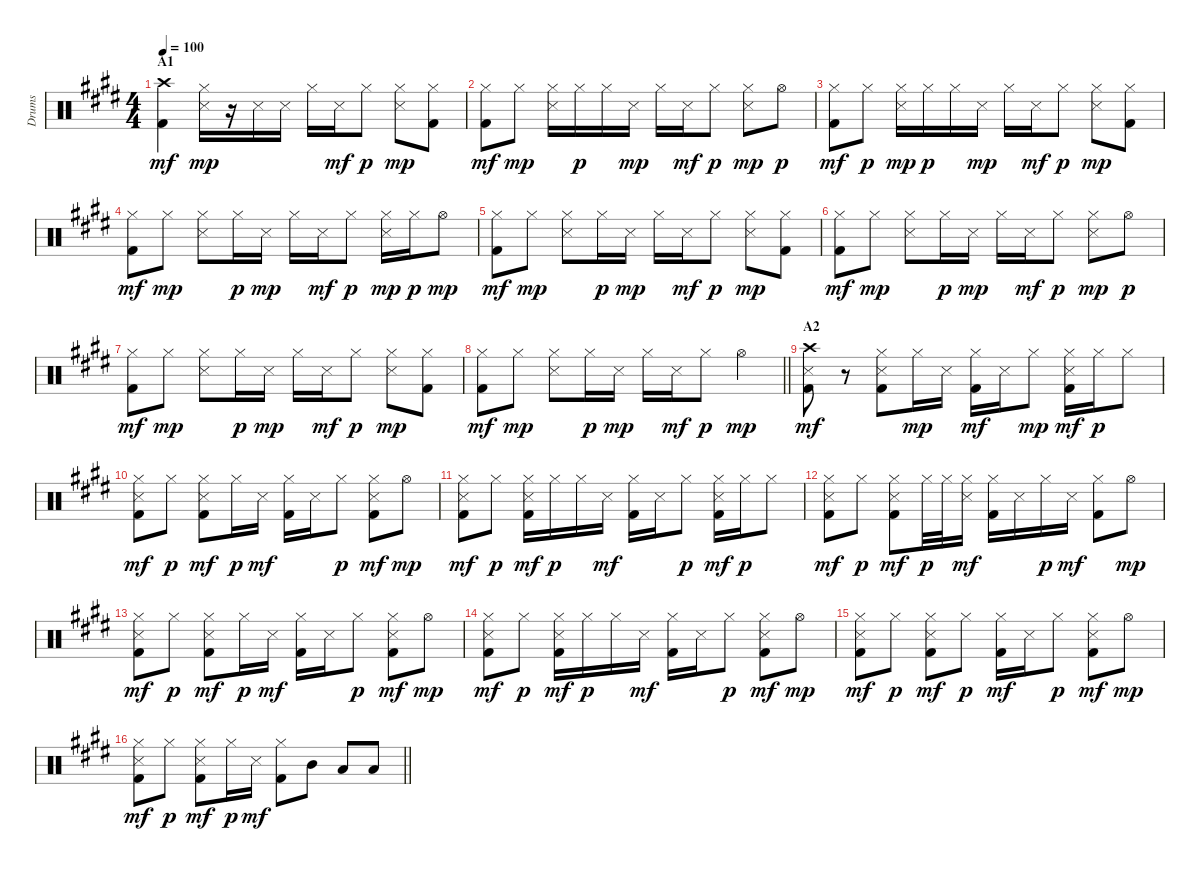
\track ("Drums" "Drums") {instrument percussion}
\staff {score}
\articulation defaults
\ts (4 4)
\section ("" "A1")
\tempo 100
\clef neutral
\ks e
("Crash high (hit)" "Kick (hit) 2").4{dy mf} ("Hi-Hat (closed)" "Snare (side stick) 3").16{dy mp} r.16 "Snare (side stick) 3".16 "Snare (side stick) 3".16 "Hi-Hat (closed)".16 "Snare (side stick) 3".16{dy mf} "Hi-Hat (closed)".8{dy p} ("Hi-Hat (closed)" "Snare (side stick) 3").8{dy mp} ("Hi-Hat (closed)" "Kick (hit) 2").8 |
("Hi-Hat (closed)" "Kick (hit) 2").8{dy mf} "Hi-Hat (closed)".8{dy mp} ("Hi-Hat (closed)" "Snare (side stick) 3").16 "Hi-Hat (closed)".16{dy p} "Hi-Hat (closed)".16 "Snare (side stick) 3".16{dy mp} "Hi-Hat (closed)".16 "Snare (side stick) 3".16{dy mf} "Hi-Hat (closed)".8{dy p} ("Hi-Hat (closed)" "Snare (side stick) 3").8{dy mp} "Hi-Hat (open)".8{dy p} |
("Hi-Hat (closed)" "Kick (hit) 2").8{dy mf} "Hi-Hat (closed)".8{dy p} ("Hi-Hat (closed)" "Snare (side stick) 3").16{dy mp} "Hi-Hat (closed)".16{dy p} "Hi-Hat (closed)".16 "Snare (side stick) 3".16{dy mp} "Hi-Hat (closed)".16 "Snare (side stick) 3".16{dy mf} "Hi-Hat (closed)".8{dy p} ("Hi-Hat (closed)" "Snare (side stick) 3").8{dy mp} ("Hi-Hat (closed)" "Kick (hit) 2").8 |
("Hi-Hat (closed)" "Kick (hit) 2").8{dy mf} "Hi-Hat (closed)".8{dy mp} ("Hi-Hat (closed)" "Snare (side stick) 3").8 "Hi-Hat (closed)".16{dy p} "Snare (side stick) 3".16{dy mp} "Hi-Hat (closed)".16 "Snare (side stick) 3".16{dy mf} "Hi-Hat (closed)".8{dy p} ("Hi-Hat (closed)" "Snare (side stick) 3").16{dy mp} "Hi-Hat (closed)".16{dy p} "Hi-Hat (open)".8{dy mp} |
("Hi-Hat (closed)" "Kick (hit) 2").8{dy mf} "Hi-Hat (closed)".8{dy mp} ("Hi-Hat (closed)" "Snare (side stick) 3").8 "Hi-Hat (closed)".16{dy p} "Snare (side stick) 3".16{dy mp} "Hi-Hat (closed)".16 "Snare (side stick) 3".16{dy mf} "Hi-Hat (closed)".8{dy p} ("Hi-Hat (closed)" "Snare (side stick) 3").8{dy mp} ("Hi-Hat (closed)" "Kick (hit) 2").8 |
("Hi-Hat (closed)" "Kick (hit) 2").8{dy mf} "Hi-Hat (closed)".8{dy mp} ("Hi-Hat (closed)" "Snare (side stick) 3").8 "Hi-Hat (closed)".16{dy p} "Snare (side stick) 3".16{dy mp} "Hi-Hat (closed)".16 "Snare (side stick) 3".16{dy mf} "Hi-Hat (closed)".8{dy p} ("Hi-Hat (closed)" "Snare (side stick) 3").8{dy mp} "Hi-Hat (open)".8{dy p} |
("Hi-Hat (closed)" "Kick (hit) 2").8{dy mf} "Hi-Hat (closed)".8{dy mp} ("Hi-Hat (closed)" "Snare (side stick) 3").8 "Hi-Hat (closed)".16{dy p} "Snare (side stick) 3".16{dy mp} "Hi-Hat (closed)".16 "Snare (side stick) 3".16{dy mf} "Hi-Hat (closed)".8{dy p} ("Hi-Hat (closed)" "Snare (side stick) 3").8{dy mp} ("Hi-Hat (closed)" "Kick (hit) 2").8 |
\barLineRight lightlight
("Hi-Hat (closed)" "Kick (hit) 2").8{dy mf} "Hi-Hat (closed)".8{dy mp} ("Hi-Hat (closed)" "Snare (side stick) 3").8 "Hi-Hat (closed)".16{dy p} "Snare (side stick) 3".16{dy mp} "Hi-Hat (closed)".16 "Snare (side stick) 3".16{dy mf} "Hi-Hat (closed)".8{dy p} "Hi-Hat (open)".4{dy mp} |
\section ("" "A2")
("Crash high (hit)" "Snare (side stick) 3" "Kick (hit) 2").8{dy mf} r.8 ("Hi-Hat (closed)" "Snare (side stick) 3" "Kick (hit) 2").8 "Hi-Hat (closed)".16{dy mp} "Snare (side stick) 3".16 ("Hi-Hat (closed)" "Kick (hit) 2").16{dy mf} "Snare (side stick) 3".16 "Hi-Hat (closed)".8{dy mp} ("Hi-Hat (closed)" "Snare (side stick) 3" "Kick (hit) 2").16{dy mf} "Hi-Hat (closed)".16{dy p} "Hi-Hat (closed)".8 |
("Hi-Hat (closed)" "Snare (side stick) 3" "Kick (hit) 2").8{dy mf} "Hi-Hat (closed)".8{dy p} ("Hi-Hat (closed)" "Snare (side stick) 3" "Kick (hit) 2").8{dy mf} "Hi-Hat (closed)".16{dy p} "Snare (side stick) 3".16{dy mf} ("Hi-Hat (closed)" "Kick (hit) 2").16 "Snare (side stick) 3".16 "Hi-Hat (closed)".8{dy p} ("Hi-Hat (closed)" "Snare (side stick) 3" "Kick (hit) 2").8{dy mf} "Hi-Hat (open)".8{dy mp} |
("Hi-Hat (closed)" "Snare (side stick) 3" "Kick (hit) 2").8{dy mf} "Hi-Hat (closed)".8{dy p} ("Hi-Hat (closed)" "Snare (side stick) 3" "Kick (hit) 2").16{dy mf} "Hi-Hat (closed)".16{dy p} "Hi-Hat (closed)".16 "Snare (side stick) 3".16{dy mf} ("Hi-Hat (closed)" "Kick (hit) 2").16 "Snare (side stick) 3".16 "Hi-Hat (closed)".8{dy p} ("Hi-Hat (closed)" "Snare (side stick) 3" "Kick (hit) 2").16{dy mf} "Hi-Hat (closed)".16{dy p} "Hi-Hat (closed)".8 |
("Hi-Hat (closed)" "Snare (side stick) 3" "Kick (hit) 2").8{dy mf} "Hi-Hat (closed)".8{dy p} ("Hi-Hat (closed)" "Snare (side stick) 3" "Kick (hit) 2").8{dy mf} "Hi-Hat (closed)".32{dy p} "Hi-Hat (closed)".32 ("Hi-Hat (closed)" "Snare (side stick) 3").16{dy mf} ("Hi-Hat (closed)" "Kick (hit) 2").16 "Snare (side stick) 3".16 "Hi-Hat (closed)".16{dy p} "Snare (side stick) 3".16{dy mf} ("Hi-Hat (closed)" "Kick (hit) 2").8 "Hi-Hat (open)".8{dy mp} |
("Hi-Hat (closed)" "Snare (side stick) 3" "Kick (hit) 2").8{dy mf} "Hi-Hat (closed)".8{dy p} ("Hi-Hat (closed)" "Snare (side stick) 3" "Kick (hit) 2").8{dy mf} "Hi-Hat (closed)".16{dy p} "Snare (side stick) 3".16{dy mf} ("Hi-Hat (closed)" "Kick (hit) 2").16 "Snare (side stick) 3".16 "Hi-Hat (closed)".8{dy p} ("Hi-Hat (closed)" "Snare (side stick) 3" "Kick (hit) 2").8{dy mf} "Hi-Hat (open)".8{dy mp} |
("Hi-Hat (closed)" "Snare (side stick) 3" "Kick (hit) 2").8{dy mf} "Hi-Hat (closed)".8{dy p} ("Hi-Hat (closed)" "Snare (side stick) 3" "Kick (hit) 2").16{dy mf} "Hi-Hat (closed)".16{dy p} "Hi-Hat (closed)".16 "Snare (side stick) 3".16{dy mf} ("Hi-Hat (closed)" "Kick (hit) 2").16 "Snare (side stick) 3".16 "Hi-Hat (closed)".8{dy p} ("Hi-Hat (closed)" "Snare (side stick) 3" "Kick (hit) 2").8{dy mf} "Hi-Hat (open)".8{dy mp} |
("Hi-Hat (closed)" "Snare (side stick) 3" "Kick (hit) 2").8{dy mf} "Hi-Hat (closed)".8{dy p} ("Hi-Hat (closed)" "Snare (side stick) 3" "Kick (hit) 2").8{dy mf} "Hi-Hat (closed)".8{dy p} ("Hi-Hat (closed)" "Kick (hit) 2").16{dy mf} "Snare (side stick) 3".16 "Hi-Hat (closed)".8{dy p} ("Hi-Hat (closed)" "Snare (side stick) 3" "Kick (hit) 2").8{dy mf} "Hi-Hat (open)".8{dy mp} |
\barLineRight lightlight
("Hi-Hat (closed)" "Snare (side stick) 3" "Kick (hit) 2").8{dy mf} "Hi-Hat (closed)".8{dy p} ("Hi-Hat (closed)" "Snare (side stick) 3" "Kick (hit) 2").8{dy mf} "Hi-Hat (closed)".16{dy p} "Snare (side stick) 3".16{dy mf} ("Hi-Hat (closed)" "Kick (hit) 2").8 "Mid Tom (hit)".8 "Low Tom (hit)".8 "Low Floor Tom (hit)".8
